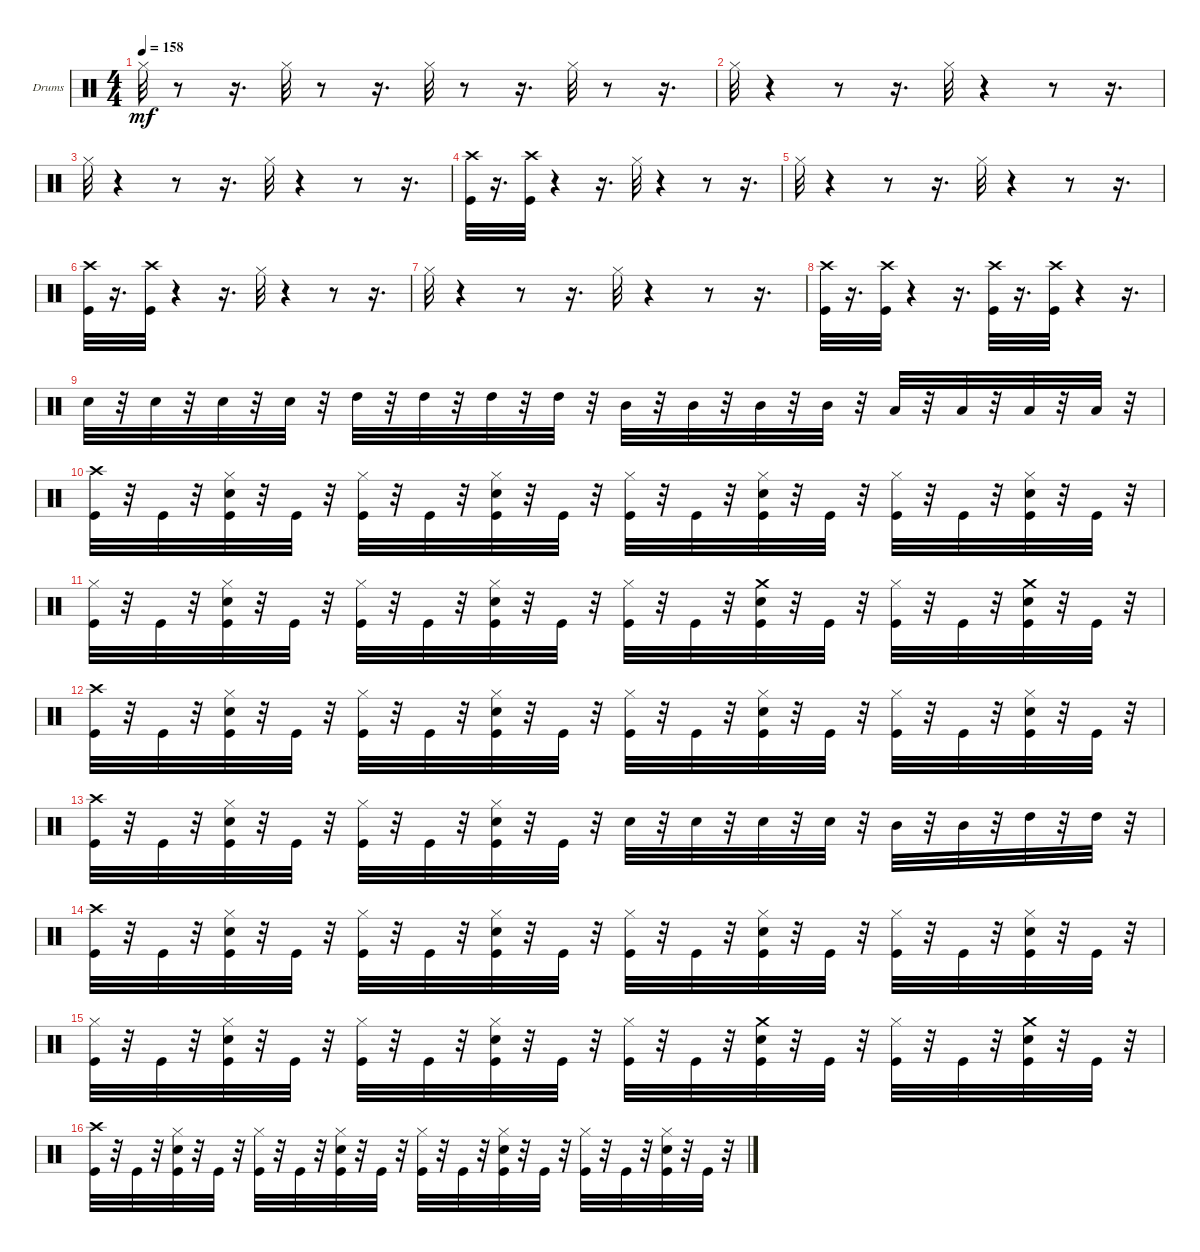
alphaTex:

\bracketExtendMode groupsimilarinstruments
\firstSystemTrackNameOrientation horizontal
\otherSystemsTrackNameOrientation horizontal
\track ("" "Drums") {instrument percussion}
\staff {score}
\articulation defaults
\ts (4 4)
\tempo 158
\clef neutral
\ks c "Hi-Hat (closed)".32{dy mf}
r.8 r.16{d} "Hi-Hat (closed)".32 r.8 r.16{d} "Hi-Hat (closed)".32 r.8 r.16{d} "Hi-Hat (closed)".32 r.8 r.16{d} |
"Hi-Hat (closed)".32 r.4 r.8 r.16{d} "Hi-Hat (closed)".32 r.4 r.8 r.16{d} |
"Hi-Hat (closed)".32 r.4 r.8 r.16{d} "Hi-Hat (closed)".32 r.4 r.8 r.16{d} |
("Crash high (hit)" "Kick (hit)").32 r.16{d} ("Crash high (hit)" "Kick (hit)").32 r.4 r.16{d} "Hi-Hat (closed)".32 r.4 r.8 r.16{d} |
"Hi-Hat (closed)".32 r.4 r.8 r.16{d} "Hi-Hat (closed)".32 r.4 r.8 r.16{d} |
("Crash high (hit)" "Kick (hit)").32 r.16{d} ("Crash high (hit)" "Kick (hit)").32 r.4 r.16{d} "Hi-Hat (closed)".32 r.4 r.8 r.16{d} |
"Hi-Hat (closed)".32 r.4 r.8 r.16{d} "Hi-Hat (closed)".32 r.4 r.8 r.16{d} |
("Crash high (hit)" "Kick (hit)").32 r.16{d} ("Crash high (hit)" "Kick (hit)").32 r.4 r.16{d} ("Crash high (hit)" "Kick (hit)").32 r.16{d} ("Crash high (hit)" "Kick (hit)").32 r.4 r.16{d} |
"Snare (hit) 2".32 r.32 "Snare (hit) 2".32 r.32 "Snare (hit) 2".32 r.32 "Snare (hit) 2".32 r.32 "High Tom (hit)".32 r.32 "High Tom (hit)".32 r.32 "High Tom (hit)".32 r.32 "High Tom (hit)".32 r.32 "Mid Tom (hit)".32 r.32 "Mid Tom (hit)".32 r.32 "Mid Tom (hit)".32 r.32 "Mid Tom (hit)".32 r.32 "Low Tom (hit)".32 r.32 "Low Tom (hit)".32 r.32 "Low Tom (hit)".32 r.32 "Low Tom (hit)".32 r.32 |
("Crash high (hit)" "Kick (hit)").32 r.32 "Kick (hit)".32 r.32 ("Kick (hit)" "Snare (hit) 2" "Hi-Hat (closed)").32 r.32 "Kick (hit)".32 r.32 ("Kick (hit)" "Hi-Hat (closed)").32 r.32 "Kick (hit)".32 r.32 ("Kick (hit)" "Snare (hit) 2" "Hi-Hat (closed)").32 r.32 "Kick (hit)".32 r.32 ("Kick (hit)" "Hi-Hat (closed)").32 r.32 "Kick (hit)".32 r.32 ("Kick (hit)" "Snare (hit) 2" "Hi-Hat (closed)").32 r.32 "Kick (hit)".32 r.32 ("Kick (hit)" "Hi-Hat (closed)").32 r.32 "Kick (hit)".32 r.32 ("Kick (hit)" "Snare (hit) 2" "Hi-Hat (closed)").32 r.32 "Kick (hit)".32 r.32 |
("Hi-Hat (closed)" "Kick (hit)").32 r.32 "Kick (hit)".32 r.32 ("Kick (hit)" "Hi-Hat (closed)" "Snare (hit) 2").32 r.32 "Kick (hit)".32 r.32 ("Kick (hit)" "Hi-Hat (closed)").32 r.32 "Kick (hit)".32 r.32 ("Kick (hit)" "Snare (hit) 2" "Hi-Hat (closed)").32 r.32 "Kick (hit)".32 r.32 ("Kick (hit)" "Hi-Hat (closed)").32 r.32 "Kick (hit)".32 r.32 ("Kick (hit)" "Crash medium (hit)" "Snare (hit) 2").32 r.32 "Kick (hit)".32 r.32 ("Kick (hit)" "Hi-Hat (closed)").32 r.32 "Kick (hit)".32 r.32 ("Kick (hit)" "Crash medium (hit)" "Snare (hit) 2").32 r.32 "Kick (hit)".32 r.32 |
("Crash high (hit)" "Kick (hit)").32 r.32 "Kick (hit)".32 r.32 ("Kick (hit)" "Hi-Hat (closed)" "Snare (hit) 2").32 r.32 "Kick (hit)".32 r.32 ("Kick (hit)" "Hi-Hat (closed)").32 r.32 "Kick (hit)".32 r.32 ("Kick (hit)" "Snare (hit) 2" "Hi-Hat (closed)").32 r.32 "Kick (hit)".32 r.32 ("Kick (hit)" "Hi-Hat (closed)").32 r.32 "Kick (hit)".32 r.32 ("Kick (hit)" "Snare (hit) 2" "Hi-Hat (closed)").32 r.32 "Kick (hit)".32 r.32 ("Kick (hit)" "Hi-Hat (closed)").32 r.32 "Kick (hit)".32 r.32 ("Kick (hit)" "Snare (hit) 2" "Hi-Hat (closed)").32 r.32 "Kick (hit)".32 r.32 |
("Crash high (hit)" "Kick (hit)").32 r.32 "Kick (hit)".32 r.32 ("Kick (hit)" "Snare (hit) 2" "Hi-Hat (closed)").32 r.32 "Kick (hit)".32 r.32 ("Kick (hit)" "Hi-Hat (closed)").32 r.32 "Kick (hit)".32 r.32 ("Hi-Hat (closed)" "Kick (hit)" "Snare (hit) 2").32 r.32 "Kick (hit)".32 r.32 "Snare (hit) 2".32 r.32 "Snare (hit) 2".32 r.32 "Snare (hit) 2".32 r.32 "Snare (hit) 2".32 r.32 "Mid Tom (hit)".32 r.32 "Mid Tom (hit)".32 r.32 "High Tom (hit)".32 r.32 "High Tom (hit)".32 r.32 |
("Crash high (hit)" "Kick (hit)").32 r.32 "Kick (hit)".32 r.32 ("Kick (hit)" "Hi-Hat (closed)" "Snare (hit) 2").32 r.32 "Kick (hit)".32 r.32 ("Kick (hit)" "Hi-Hat (closed)").32 r.32 "Kick (hit)".32 r.32 ("Kick (hit)" "Snare (hit) 2" "Hi-Hat (closed)").32 r.32 "Kick (hit)".32 r.32 ("Kick (hit)" "Hi-Hat (closed)").32 r.32 "Kick (hit)".32 r.32 ("Kick (hit)" "Snare (hit) 2" "Hi-Hat (closed)").32 r.32 "Kick (hit)".32 r.32 ("Kick (hit)" "Hi-Hat (closed)").32 r.32 "Kick (hit)".32 r.32 ("Kick (hit)" "Snare (hit) 2" "Hi-Hat (closed)").32 r.32 "Kick (hit)".32 r.32 |
("Hi-Hat (closed)" "Kick (hit)").32 r.32 "Kick (hit)".32 r.32 ("Kick (hit)" "Hi-Hat (closed)" "Snare (hit) 2").32 r.32 "Kick (hit)".32 r.32 ("Kick (hit)" "Hi-Hat (closed)").32 r.32 "Kick (hit)".32 r.32 ("Kick (hit)" "Snare (hit) 2" "Hi-Hat (closed)").32 r.32 "Kick (hit)".32 r.32 ("Kick (hit)" "Hi-Hat (closed)").32 r.32 "Kick (hit)".32 r.32 ("Kick (hit)" "Crash medium (hit)" "Snare (hit) 2").32 r.32 "Kick (hit)".32 r.32 ("Kick (hit)" "Hi-Hat (closed)").32 r.32 "Kick (hit)".32 r.32 ("Kick (hit)" "Crash medium (hit)" "Snare (hit) 2").32 r.32 "Kick (hit)".32 r.32 |
("Crash high (hit)" "Kick (hit)").32 r.32 "Kick (hit)".32 r.32 ("Kick (hit)" "Hi-Hat (closed)" "Snare (hit) 2").32 r.32 "Kick (hit)".32 r.32 ("Kick (hit)" "Hi-Hat (closed)").32 r.32 "Kick (hit)".32 r.32 ("Kick (hit)" "Snare (hit) 2" "Hi-Hat (closed)").32 r.32 "Kick (hit)".32 r.32 ("Kick (hit)" "Hi-Hat (closed)").32 r.32 "Kick (hit)".32 r.32 ("Kick (hit)" "Snare (hit) 2" "Hi-Hat (closed)").32 r.32 "Kick (hit)".32 r.32 ("Kick (hit)" "Hi-Hat (closed)").32 r.32 "Kick (hit)".32 r.32 ("Kick (hit)" "Snare (hit) 2" "Hi-Hat (closed)").32 r.32 "Kick (hit)".32 r.32
